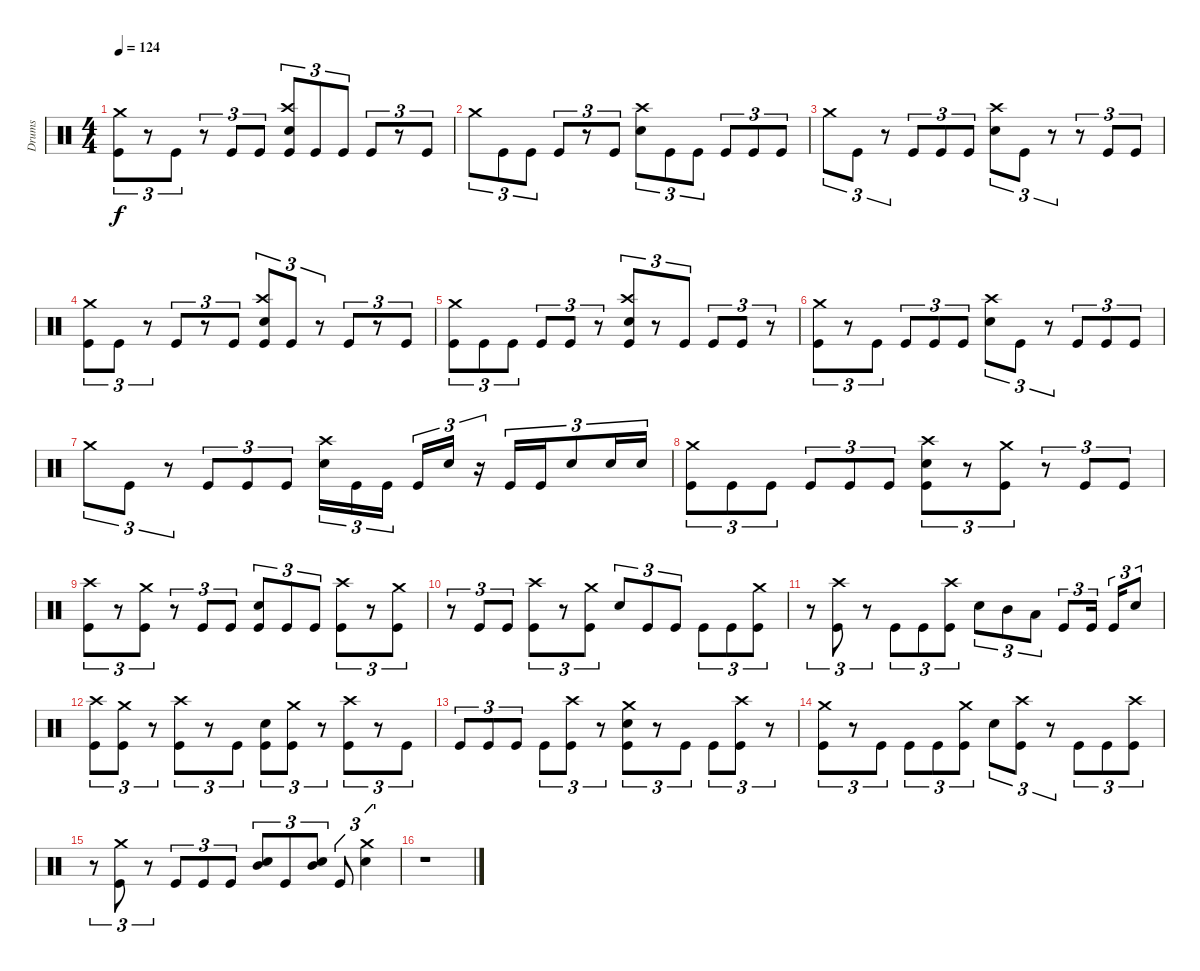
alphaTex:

\track ("Drums" "Drums") {instrument percussion}
\staff {score}
\articulation defaults
\ts (4 4)
\tempo 124
\clef neutral
\ks c
("Crash medium (hit)" "Kick (hit)").8{tu (3 2) dy f} r.8{tu (3 2)} "Kick (hit)".8{tu (3 2)} r.8{tu (3 2)} "Kick (hit)".8{tu (3 2)} "Kick (hit)".8{tu (3 2)} ("Crash high (hit)" "Electric Snare (hit)" "Kick (hit)").8{tu (3 2)} "Kick (hit)".8{tu (3 2)} "Kick (hit)".8{tu (3 2)} "Kick (hit)".8{tu (3 2)} r.8{tu (3 2)} "Kick (hit)".8{tu (3 2)} |
"Crash medium (hit)".8{tu (3 2)} "Kick (hit)".8{tu (3 2)} "Kick (hit)".8{tu (3 2)} "Kick (hit)".8{tu (3 2)} r.8{tu (3 2)} "Kick (hit)".8{tu (3 2)} ("Crash high (hit)" "Electric Snare (hit)").8{tu (3 2)} "Kick (hit)".8{tu (3 2)} "Kick (hit)".8{tu (3 2)} "Kick (hit)".8{tu (3 2)} "Kick (hit)".8{tu (3 2)} "Kick (hit)".8{tu (3 2)} |
"Crash medium (hit)".8{tu (3 2)} "Kick (hit)".8{tu (3 2)} r.8{tu (3 2)} "Kick (hit)".8{tu (3 2)} "Kick (hit)".8{tu (3 2)} "Kick (hit)".8{tu (3 2)} ("Crash high (hit)" "Electric Snare (hit)").8{tu (3 2)} "Kick (hit)".8{tu (3 2)} r.8{tu (3 2)} r.8{tu (3 2)} "Kick (hit)".8{tu (3 2)} "Kick (hit)".8{tu (3 2)} |
("Crash medium (hit)" "Kick (hit)").8{tu (3 2)} "Kick (hit)".8{tu (3 2)} r.8{tu (3 2)} "Kick (hit)".8{tu (3 2)} r.8{tu (3 2)} "Kick (hit)".8{tu (3 2)} ("Crash high (hit)" "Electric Snare (hit)" "Kick (hit)").8{tu (3 2)} "Kick (hit)".8{tu (3 2)} r.8{tu (3 2)} "Kick (hit)".8{tu (3 2)} r.8{tu (3 2)} "Kick (hit)".8{tu (3 2)} |
("Crash medium (hit)" "Kick (hit)").8{tu (3 2)} "Kick (hit)".8{tu (3 2)} "Kick (hit)".8{tu (3 2)} "Kick (hit)".8{tu (3 2)} "Kick (hit)".8{tu (3 2)} r.8{tu (3 2)} ("Crash high (hit)" "Electric Snare (hit)" "Kick (hit)").8{tu (3 2)} r.8{tu (3 2)} "Kick (hit)".8{tu (3 2)} "Kick (hit)".8{tu (3 2)} "Kick (hit)".8{tu (3 2)} r.8{tu (3 2)} |
("Crash medium (hit)" "Kick (hit)").8{tu (3 2)} r.8{tu (3 2)} "Kick (hit)".8{tu (3 2)} "Kick (hit)".8{tu (3 2)} "Kick (hit)".8{tu (3 2)} "Kick (hit)".8{tu (3 2)} ("Crash high (hit)" "Electric Snare (hit)").8{tu (3 2)} "Kick (hit)".8{tu (3 2)} r.8{tu (3 2)} "Kick (hit)".8{tu (3 2)} "Kick (hit)".8{tu (3 2)} "Kick (hit)".8{tu (3 2)} |
"Crash medium (hit)".8{tu (3 2)} "Kick (hit)".8{tu (3 2)} r.8{tu (3 2)} "Kick (hit)".8{tu (3 2)} "Kick (hit)".8{tu (3 2)} "Kick (hit)".8{tu (3 2)} ("Crash high (hit)" "Electric Snare (hit)").16{tu (3 2)} "Kick (hit)".16{tu (3 2)} "Kick (hit)".16{tu (3 2)} "Kick (hit)".16{tu (3 2)} "Electric Snare (hit)".16{tu (3 2)} r.16{tu (3 2)} "Kick (hit)".16{tu (3 2)} "Kick (hit)".16{tu (3 2)} "Electric Snare (hit)".8{tu (3 2)} "Electric Snare (hit)".16{tu (3 2)} "Electric Snare (hit)".16{tu (3 2)} |
("Crash medium (hit)" "Kick (hit)").8{tu (3 2)} "Kick (hit)".8{tu (3 2)} "Kick (hit)".8{tu (3 2)} "Kick (hit)".8{tu (3 2)} "Kick (hit)".8{tu (3 2)} "Kick (hit)".8{tu (3 2)} ("Crash high (hit)" "Electric Snare (hit)" "Kick (hit)").8{tu (3 2)} r.8{tu (3 2)} ("Crash medium (hit)" "Kick (hit)").8{tu (3 2)} r.8{tu (3 2)} "Kick (hit)".8{tu (3 2)} "Kick (hit)".8{tu (3 2)} |
("Crash high (hit)" "Kick (hit)").8{tu (3 2)} r.8{tu (3 2)} ("Crash medium (hit)" "Kick (hit)").8{tu (3 2)} r.8{tu (3 2)} "Kick (hit)".8{tu (3 2)} "Kick (hit)".8{tu (3 2)} ("Electric Snare (hit)" "Kick (hit)").8{tu (3 2)} "Kick (hit)".8{tu (3 2)} "Kick (hit)".8{tu (3 2)} ("Crash high (hit)" "Kick (hit)").8{tu (3 2)} r.8{tu (3 2)} ("Crash medium (hit)" "Kick (hit)").8{tu (3 2)} |
r.8{tu (3 2)} "Kick (hit)".8{tu (3 2)} "Kick (hit)".8{tu (3 2)} ("Crash high (hit)" "Kick (hit)").8{tu (3 2)} r.8{tu (3 2)} ("Crash medium (hit)" "Kick (hit)").8{tu (3 2)} "Electric Snare (hit)".8{tu (3 2)} "Kick (hit)".8{tu (3 2)} "Kick (hit)".8{tu (3 2)} "Kick (hit)".8{tu (3 2)} "Kick (hit)".8{tu (3 2)} ("Crash medium (hit)" "Kick (hit)").8{tu (3 2)} |
r.8{tu (3 2)} ("Crash high (hit)" "Kick (hit)").8{tu (3 2)} r.8{tu (3 2)} "Kick (hit)".8{tu (3 2)} "Kick (hit)".8{tu (3 2)} ("Crash high (hit)" "Kick (hit)").8{tu (3 2)} "Electric Snare (hit)".8{tu (3 2)} "Mid Tom (hit)".8{tu (3 2)} "Low Tom (hit)".8{tu (3 2)} "Kick (hit)".8{tu (3 2)} "Kick (hit)".16{tu (3 2)} "Kick (hit)".16{tu (3 2)} "Electric Snare (hit)".8{tu (3 2)} |
("Crash high (hit)" "Kick (hit)").8{tu (3 2)} ("Crash medium (hit)" "Kick (hit)").8{tu (3 2)} r.8{tu (3 2)} ("Crash high (hit)" "Kick (hit)").8{tu (3 2)} r.8{tu (3 2)} "Kick (hit)".8{tu (3 2)} ("Electric Snare (hit)" "Kick (hit)").8{tu (3 2)} ("Crash medium (hit)" "Kick (hit)").8{tu (3 2)} r.8{tu (3 2)} ("Crash high (hit)" "Kick (hit)").8{tu (3 2)} r.8{tu (3 2)} "Kick (hit)".8{tu (3 2)} |
"Kick (hit)".8{tu (3 2)} "Kick (hit)".8{tu (3 2)} "Kick (hit)".8{tu (3 2)} "Kick (hit)".8{tu (3 2)} ("Crash high (hit)" "Kick (hit)").8{tu (3 2)} r.8{tu (3 2)} ("Crash medium (hit)" "Electric Snare (hit)" "Kick (hit)").8{tu (3 2)} r.8{tu (3 2)} "Kick (hit)".8{tu (3 2)} "Kick (hit)".8{tu (3 2)} ("Crash high (hit)" "Kick (hit)").8{tu (3 2)} r.8{tu (3 2)} |
("Crash medium (hit)" "Kick (hit)").8{tu (3 2)} r.8{tu (3 2)} "Kick (hit)".8{tu (3 2)} "Kick (hit)".8{tu (3 2)} "Kick (hit)".8{tu (3 2)} ("Crash medium (hit)" "Kick (hit)").8{tu (3 2)} "Electric Snare (hit)".8{tu (3 2)} ("Crash high (hit)" "Kick (hit)").8{tu (3 2)} r.8{tu (3 2)} "Kick (hit)".8{tu (3 2)} "Kick (hit)".8{tu (3 2)} ("Crash high (hit)" "Kick (hit)").8{tu (3 2)} |
r.8{tu (3 2)} ("Crash medium (hit)" "Kick (hit)").8{tu (3 2)} r.8{tu (3 2)} "Kick (hit)".8{tu (3 2)} "Kick (hit)".8{tu (3 2)} "Kick (hit)".8{tu (3 2)} ("Mid Tom (hit)" "Electric Snare (hit)").8{tu (3 2)} "Kick (hit)".8{tu (3 2)} ("Mid Tom (hit)" "Electric Snare (hit)").8{tu (3 2)} "Kick (hit)".8{tu (3 2)} ("Crash medium (hit)" "Electric Snare (hit)").4{tu (3 2)} |
r.1
